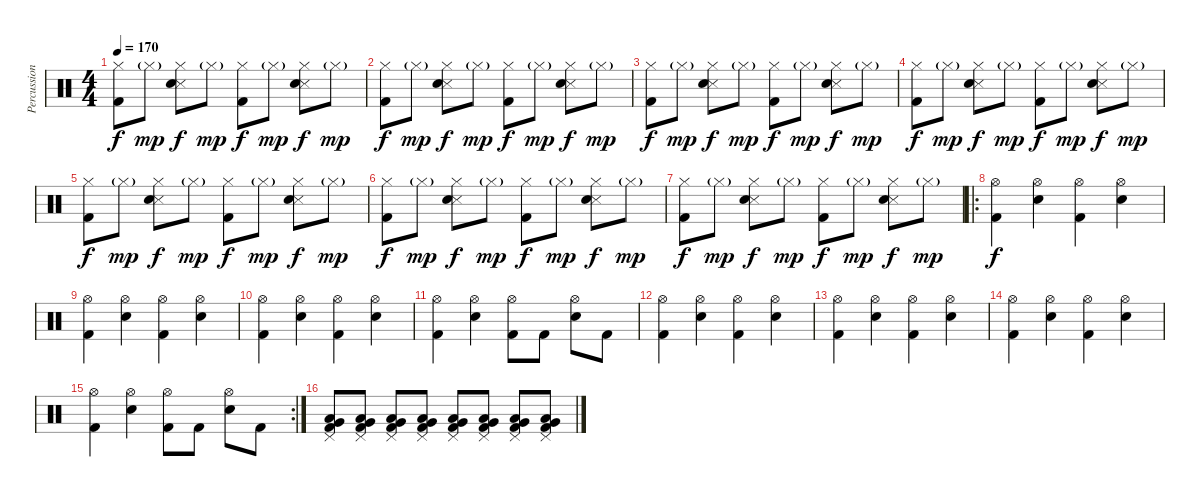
\track ("Percussion" "Percussion") {instrument percussion}
\staff {score}
\articulation defaults
\ts (4 4)
\tempo 170
\clef neutral
\ks c
("Hi-Hat (closed)" "Kick (hit) 2").8{dy f} "Hi-Hat (closed)"{g}.8{dy mp} ("Hi-Hat (closed)" "Snare (side stick) 3" "Snare (hit) 2").8{dy f} "Hi-Hat (closed)"{g}.8{dy mp} ("Hi-Hat (closed)" "Kick (hit) 2").8{dy f} "Hi-Hat (closed)"{g}.8{dy mp} ("Hi-Hat (closed)" "Snare (side stick) 3" "Snare (hit) 2").8{dy f} "Hi-Hat (closed)"{g}.8{dy mp} |
("Hi-Hat (closed)" "Kick (hit) 2").8{dy f} "Hi-Hat (closed)"{g}.8{dy mp} ("Hi-Hat (closed)" "Snare (side stick) 3" "Snare (hit) 2").8{dy f} "Hi-Hat (closed)"{g}.8{dy mp} ("Hi-Hat (closed)" "Kick (hit) 2").8{dy f} "Hi-Hat (closed)"{g}.8{dy mp} ("Hi-Hat (closed)" "Snare (side stick) 3" "Snare (hit) 2").8{dy f} "Hi-Hat (closed)"{g}.8{dy mp} |
("Hi-Hat (closed)" "Kick (hit) 2").8{dy f} "Hi-Hat (closed)"{g}.8{dy mp} ("Hi-Hat (closed)" "Snare (side stick) 3" "Snare (hit) 2").8{dy f} "Hi-Hat (closed)"{g}.8{dy mp} ("Hi-Hat (closed)" "Kick (hit) 2").8{dy f} "Hi-Hat (closed)"{g}.8{dy mp} ("Hi-Hat (closed)" "Snare (side stick) 3" "Snare (hit) 2").8{dy f} "Hi-Hat (closed)"{g}.8{dy mp} |
("Hi-Hat (closed)" "Kick (hit) 2").8{dy f} "Hi-Hat (closed)"{g}.8{dy mp} ("Hi-Hat (closed)" "Snare (side stick) 3" "Snare (hit) 2").8{dy f} "Hi-Hat (closed)"{g}.8{dy mp} ("Hi-Hat (closed)" "Kick (hit) 2").8{dy f} "Hi-Hat (closed)"{g}.8{dy mp} ("Hi-Hat (closed)" "Snare (side stick) 3" "Snare (hit) 2").8{dy f} "Hi-Hat (closed)"{g}.8{dy mp} |
("Hi-Hat (closed)" "Kick (hit) 2").8{dy f} "Hi-Hat (closed)"{g}.8{dy mp} ("Hi-Hat (closed)" "Snare (side stick) 3" "Snare (hit) 2").8{dy f} "Hi-Hat (closed)"{g}.8{dy mp} ("Hi-Hat (closed)" "Kick (hit) 2").8{dy f} "Hi-Hat (closed)"{g}.8{dy mp} ("Hi-Hat (closed)" "Snare (side stick) 3" "Snare (hit) 2").8{dy f} "Hi-Hat (closed)"{g}.8{dy mp} |
("Hi-Hat (closed)" "Kick (hit) 2").8{dy f} "Hi-Hat (closed)"{g}.8{dy mp} ("Hi-Hat (closed)" "Snare (side stick) 3" "Snare (hit) 2").8{dy f} "Hi-Hat (closed)"{g}.8{dy mp} ("Hi-Hat (closed)" "Kick (hit) 2").8{dy f} "Hi-Hat (closed)"{g}.8{dy mp} ("Hi-Hat (closed)" "Snare (side stick) 3" "Snare (hit) 2").8{dy f} "Hi-Hat (closed)"{g}.8{dy mp} |
("Hi-Hat (closed)" "Kick (hit) 2").8{dy f} "Hi-Hat (closed)"{g}.8{dy mp} ("Hi-Hat (closed)" "Snare (side stick) 3" "Snare (hit) 2").8{dy f} "Hi-Hat (closed)"{g}.8{dy mp} ("Hi-Hat (closed)" "Kick (hit) 2").8{dy f} "Hi-Hat (closed)"{g}.8{dy mp} ("Hi-Hat (closed)" "Snare (side stick) 3" "Snare (hit) 2").8{dy f} "Hi-Hat (closed)"{g}.8{dy mp} |
\ro
("Hi-Hat (open)" "Kick (hit) 2").4{dy f} ("Hi-Hat (open)" "Snare (hit) 2").4 ("Hi-Hat (open)" "Kick (hit) 2").4 ("Hi-Hat (open)" "Snare (hit) 2").4 |
("Hi-Hat (open)" "Kick (hit) 2").4 ("Hi-Hat (open)" "Snare (hit) 2").4 ("Hi-Hat (open)" "Kick (hit) 2").4 ("Hi-Hat (open)" "Snare (hit) 2").4 |
("Hi-Hat (open)" "Kick (hit) 2").4 ("Hi-Hat (open)" "Snare (hit) 2").4 ("Hi-Hat (open)" "Kick (hit) 2").4 ("Hi-Hat (open)" "Snare (hit) 2").4 |
("Hi-Hat (open)" "Kick (hit) 2").4 ("Hi-Hat (open)" "Snare (hit) 2").4 ("Hi-Hat (open)" "Kick (hit) 2").8 "Kick (hit) 2".8 ("Hi-Hat (open)" "Snare (hit) 2").8 "Kick (hit) 2".8 |
("Hi-Hat (open)" "Kick (hit) 2").4 ("Hi-Hat (open)" "Snare (hit) 2").4 ("Hi-Hat (open)" "Kick (hit) 2").4 ("Hi-Hat (open)" "Snare (hit) 2").4 |
("Hi-Hat (open)" "Kick (hit) 2").4 ("Hi-Hat (open)" "Snare (hit) 2").4 ("Hi-Hat (open)" "Kick (hit) 2").4 ("Hi-Hat (open)" "Snare (hit) 2").4 |
("Hi-Hat (open)" "Kick (hit) 2").4 ("Hi-Hat (open)" "Snare (hit) 2").4 ("Hi-Hat (open)" "Kick (hit) 2").4 ("Hi-Hat (open)" "Snare (hit) 2").4 |
\rc 2
("Hi-Hat (open)" "Kick (hit) 2").4 ("Hi-Hat (open)" "Snare (hit) 2").4 ("Hi-Hat (open)" "Kick (hit) 2").8 "Kick (hit) 2".8 ("Hi-Hat (open)" "Snare (hit) 2").8 "Kick (hit) 2".8 |
("Pedal Hi-Hat (hit)" "Low Tom (hit)" "Very Low Tom (hit)" "Kick (hit) 2").8 ("Pedal Hi-Hat (hit)" "Low Tom (hit)" "Very Low Tom (hit)" "Kick (hit) 2").8 ("Pedal Hi-Hat (hit)" "Low Tom (hit)" "Very Low Tom (hit)" "Kick (hit) 2").8 ("Pedal Hi-Hat (hit)" "Low Tom (hit)" "Very Low Tom (hit)" "Kick (hit) 2").8 ("Pedal Hi-Hat (hit)" "Low Tom (hit)" "Very Low Tom (hit)" "Kick (hit) 2").8 ("Pedal Hi-Hat (hit)" "Low Tom (hit)" "Very Low Tom (hit)" "Kick (hit) 2").8 ("Pedal Hi-Hat (hit)" "Low Tom (hit)" "Very Low Tom (hit)" "Kick (hit) 2").8 ("Pedal Hi-Hat (hit)" "Low Tom (hit)" "Very Low Tom (hit)" "Kick (hit) 2").8
